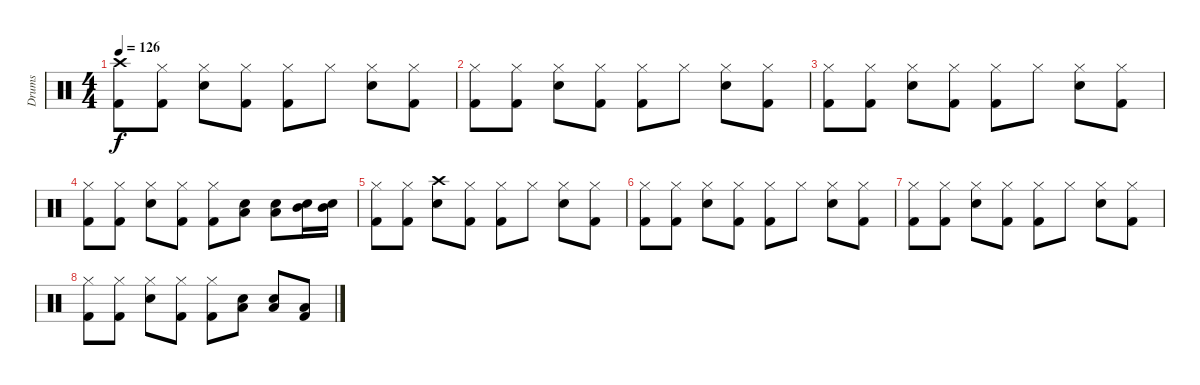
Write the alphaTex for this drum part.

\track ("Drums" "Drums") {instrument percussion}
\staff {score}
\articulation defaults
\ts (4 4)
\tempo 126
\clef neutral
\ks c
("Crash high (hit)" "Kick (hit) 2").8{dy f volume 10} ("Hi-Hat (closed)" "Kick (hit) 2").8 ("Hi-Hat (closed)" "Snare (hit) 2").8 ("Hi-Hat (closed)" "Kick (hit) 2").8 ("Hi-Hat (closed)" "Kick (hit) 2").8 "Hi-Hat (closed)".8 ("Hi-Hat (closed)" "Snare (hit) 2").8 ("Hi-Hat (closed)" "Kick (hit) 2").8 |
("Hi-Hat (closed)" "Kick (hit) 2").8{volume 9} ("Hi-Hat (closed)" "Kick (hit) 2").8 ("Hi-Hat (closed)" "Snare (hit) 2").8 ("Hi-Hat (closed)" "Kick (hit) 2").8 ("Hi-Hat (closed)" "Kick (hit) 2").8 "Hi-Hat (closed)".8 ("Hi-Hat (closed)" "Snare (hit) 2").8 ("Hi-Hat (closed)" "Kick (hit) 2").8 |
("Hi-Hat (closed)" "Kick (hit) 2").8{volume 8} ("Hi-Hat (closed)" "Kick (hit) 2").8 ("Hi-Hat (closed)" "Snare (hit) 2").8 ("Hi-Hat (closed)" "Kick (hit) 2").8 ("Hi-Hat (closed)" "Kick (hit) 2").8 "Hi-Hat (closed)".8 ("Hi-Hat (closed)" "Snare (hit) 2").8 ("Hi-Hat (closed)" "Kick (hit) 2").8 |
("Hi-Hat (closed)" "Kick (hit) 2").8{volume 7} ("Hi-Hat (closed)" "Kick (hit) 2").8 ("Hi-Hat (closed)" "Snare (hit) 2").8 ("Hi-Hat (closed)" "Kick (hit) 2").8 ("Hi-Hat (closed)" "Kick (hit) 2").8 ("Low Tom (hit)" "Snare (hit) 2").8 ("Low Tom (hit)" "Snare (hit) 2").8 ("Mid Tom (hit)" "Snare (hit) 2").16 ("Mid Tom (hit)" "Snare (hit) 2").16 |
("Hi-Hat (closed)" "Kick (hit) 2").8{volume 6} ("Hi-Hat (closed)" "Kick (hit) 2").8 ("Crash high (hit)" "Snare (hit) 2").8 ("Hi-Hat (closed)" "Kick (hit) 2").8 ("Hi-Hat (closed)" "Kick (hit) 2").8 "Hi-Hat (closed)".8 ("Hi-Hat (closed)" "Snare (hit) 2").8 ("Hi-Hat (closed)" "Kick (hit) 2").8 |
("Hi-Hat (closed)" "Kick (hit) 2").8{volume 4} ("Hi-Hat (closed)" "Kick (hit) 2").8 ("Hi-Hat (closed)" "Snare (hit) 2").8 ("Hi-Hat (closed)" "Kick (hit) 2").8 ("Hi-Hat (closed)" "Kick (hit) 2").8 "Hi-Hat (closed)".8 ("Hi-Hat (closed)" "Snare (hit) 2").8 ("Hi-Hat (closed)" "Kick (hit) 2").8 |
("Hi-Hat (closed)" "Kick (hit) 2").8{volume 3} ("Hi-Hat (closed)" "Kick (hit) 2").8 ("Hi-Hat (closed)" "Snare (hit) 2").8 ("Hi-Hat (closed)" "Kick (hit) 2").8 ("Hi-Hat (closed)" "Kick (hit) 2").8 "Hi-Hat (closed)".8 ("Hi-Hat (closed)" "Snare (hit) 2").8 ("Hi-Hat (closed)" "Kick (hit) 2").8 |
("Hi-Hat (closed)" "Kick (hit) 2").8{volume 2} ("Hi-Hat (closed)" "Kick (hit) 2").8 ("Hi-Hat (closed)" "Snare (hit) 2").8 ("Hi-Hat (closed)" "Kick (hit) 2").8 ("Hi-Hat (closed)" "Kick (hit) 2").8 ("Low Tom (hit)" "Snare (hit) 2").8 ("Low Tom (hit)" "Snare (hit) 2").8 ("Low Tom (hit)" "Kick (hit) 2").8
